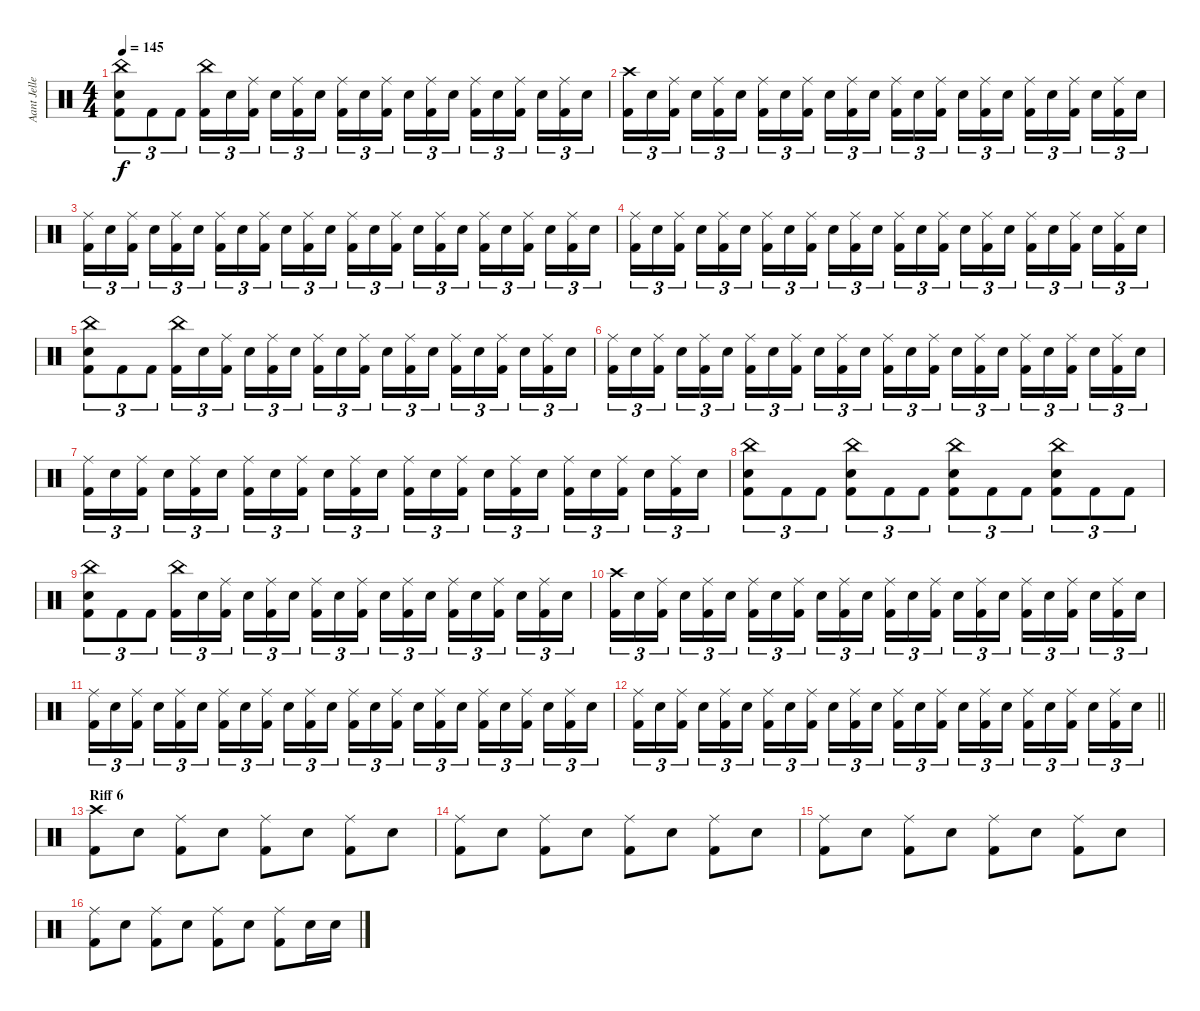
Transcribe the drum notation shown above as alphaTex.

\track ("Aant Jelle" "Aant Jelle") {instrument percussion}
\staff {score}
\articulation defaults
\ts (4 4)
\tempo 145
\clef neutral
\ks c
("China (hit)" "Electric Snare (hit)" "Kick (hit) 2").8{tu (3 2) dy f} "Kick (hit) 2".8{tu (3 2)} "Kick (hit) 2".8{tu (3 2)} ("China (hit)" "Kick (hit) 2").16{tu (3 2)} "Electric Snare (hit)".16{tu (3 2)} ("Ride (middle)" "Kick (hit) 2").16{tu (3 2) beam splitsecondary} "Electric Snare (hit)".16{tu (3 2)} ("Ride (middle)" "Kick (hit) 2").16{tu (3 2)} "Electric Snare (hit)".16{tu (3 2)} ("Ride (middle)" "Kick (hit) 2").16{tu (3 2)} "Electric Snare (hit)".16{tu (3 2)} ("Ride (middle)" "Kick (hit) 2").16{tu (3 2) beam splitsecondary} "Electric Snare (hit)".16{tu (3 2)} ("Ride (middle)" "Kick (hit) 2").16{tu (3 2)} "Electric Snare (hit)".16{tu (3 2)} ("Ride (middle)" "Kick (hit) 2").16{tu (3 2)} "Electric Snare (hit)".16{tu (3 2)} ("Ride (middle)" "Kick (hit) 2").16{tu (3 2) beam splitsecondary} "Electric Snare (hit)".16{tu (3 2)} ("Ride (middle)" "Kick (hit) 2").16{tu (3 2)} "Electric Snare (hit)".16{tu (3 2)} |
("Crash high (hit)" "Kick (hit) 2").16{tu (3 2)} "Electric Snare (hit)".16{tu (3 2)} ("Ride (middle)" "Kick (hit) 2").16{tu (3 2) beam splitsecondary} "Electric Snare (hit)".16{tu (3 2)} ("Ride (middle)" "Kick (hit) 2").16{tu (3 2)} "Electric Snare (hit)".16{tu (3 2)} ("Ride (middle)" "Kick (hit) 2").16{tu (3 2)} "Electric Snare (hit)".16{tu (3 2)} ("Ride (middle)" "Kick (hit) 2").16{tu (3 2) beam splitsecondary} "Electric Snare (hit)".16{tu (3 2)} ("Ride (middle)" "Kick (hit) 2").16{tu (3 2)} "Electric Snare (hit)".16{tu (3 2)} ("Ride (middle)" "Kick (hit) 2").16{tu (3 2)} "Electric Snare (hit)".16{tu (3 2)} ("Ride (middle)" "Kick (hit) 2").16{tu (3 2) beam splitsecondary} "Electric Snare (hit)".16{tu (3 2)} ("Ride (middle)" "Kick (hit) 2").16{tu (3 2)} "Electric Snare (hit)".16{tu (3 2)} ("Ride (middle)" "Kick (hit) 2").16{tu (3 2)} "Electric Snare (hit)".16{tu (3 2)} ("Ride (middle)" "Kick (hit) 2").16{tu (3 2) beam splitsecondary} "Electric Snare (hit)".16{tu (3 2)} ("Ride (middle)" "Kick (hit) 2").16{tu (3 2)} "Electric Snare (hit)".16{tu (3 2)} |
("Ride (middle)" "Kick (hit) 2").16{tu (3 2)} "Electric Snare (hit)".16{tu (3 2)} ("Ride (middle)" "Kick (hit) 2").16{tu (3 2) beam splitsecondary} "Electric Snare (hit)".16{tu (3 2)} ("Ride (middle)" "Kick (hit) 2").16{tu (3 2)} "Electric Snare (hit)".16{tu (3 2)} ("Ride (middle)" "Kick (hit) 2").16{tu (3 2)} "Electric Snare (hit)".16{tu (3 2)} ("Ride (middle)" "Kick (hit) 2").16{tu (3 2) beam splitsecondary} "Electric Snare (hit)".16{tu (3 2)} ("Ride (middle)" "Kick (hit) 2").16{tu (3 2)} "Electric Snare (hit)".16{tu (3 2)} ("Ride (middle)" "Kick (hit) 2").16{tu (3 2)} "Electric Snare (hit)".16{tu (3 2)} ("Ride (middle)" "Kick (hit) 2").16{tu (3 2) beam splitsecondary} "Electric Snare (hit)".16{tu (3 2)} ("Ride (middle)" "Kick (hit) 2").16{tu (3 2)} "Electric Snare (hit)".16{tu (3 2)} ("Ride (middle)" "Kick (hit) 2").16{tu (3 2)} "Electric Snare (hit)".16{tu (3 2)} ("Ride (middle)" "Kick (hit) 2").16{tu (3 2) beam splitsecondary} "Electric Snare (hit)".16{tu (3 2)} ("Ride (middle)" "Kick (hit) 2").16{tu (3 2)} "Electric Snare (hit)".16{tu (3 2)} |
("Ride (middle)" "Kick (hit) 2").16{tu (3 2)} "Electric Snare (hit)".16{tu (3 2)} ("Ride (middle)" "Kick (hit) 2").16{tu (3 2) beam splitsecondary} "Electric Snare (hit)".16{tu (3 2)} ("Ride (middle)" "Kick (hit) 2").16{tu (3 2)} "Electric Snare (hit)".16{tu (3 2)} ("Ride (middle)" "Kick (hit) 2").16{tu (3 2)} "Electric Snare (hit)".16{tu (3 2)} ("Ride (middle)" "Kick (hit) 2").16{tu (3 2) beam splitsecondary} "Electric Snare (hit)".16{tu (3 2)} ("Ride (middle)" "Kick (hit) 2").16{tu (3 2)} "Electric Snare (hit)".16{tu (3 2)} ("Ride (middle)" "Kick (hit) 2").16{tu (3 2)} "Electric Snare (hit)".16{tu (3 2)} ("Ride (middle)" "Kick (hit) 2").16{tu (3 2) beam splitsecondary} "Electric Snare (hit)".16{tu (3 2)} ("Ride (middle)" "Kick (hit) 2").16{tu (3 2)} "Electric Snare (hit)".16{tu (3 2)} ("Ride (middle)" "Kick (hit) 2").16{tu (3 2)} "Electric Snare (hit)".16{tu (3 2)} ("Ride (middle)" "Kick (hit) 2").16{tu (3 2) beam splitsecondary} "Electric Snare (hit)".16{tu (3 2)} ("Ride (middle)" "Kick (hit) 2").16{tu (3 2)} "Electric Snare (hit)".16{tu (3 2)} |
("China (hit)" "Electric Snare (hit)" "Kick (hit) 2").8{tu (3 2)} "Kick (hit) 2".8{tu (3 2)} "Kick (hit) 2".8{tu (3 2)} ("China (hit)" "Kick (hit) 2").16{tu (3 2)} "Electric Snare (hit)".16{tu (3 2)} ("Ride (middle)" "Kick (hit) 2").16{tu (3 2) beam splitsecondary} "Electric Snare (hit)".16{tu (3 2)} ("Ride (middle)" "Kick (hit) 2").16{tu (3 2)} "Electric Snare (hit)".16{tu (3 2)} ("Ride (middle)" "Kick (hit) 2").16{tu (3 2)} "Electric Snare (hit)".16{tu (3 2)} ("Ride (middle)" "Kick (hit) 2").16{tu (3 2) beam splitsecondary} "Electric Snare (hit)".16{tu (3 2)} ("Ride (middle)" "Kick (hit) 2").16{tu (3 2)} "Electric Snare (hit)".16{tu (3 2)} ("Ride (middle)" "Kick (hit) 2").16{tu (3 2)} "Electric Snare (hit)".16{tu (3 2)} ("Ride (middle)" "Kick (hit) 2").16{tu (3 2) beam splitsecondary} "Electric Snare (hit)".16{tu (3 2)} ("Ride (middle)" "Kick (hit) 2").16{tu (3 2)} "Electric Snare (hit)".16{tu (3 2)} |
("Ride (middle)" "Kick (hit) 2").16{tu (3 2)} "Electric Snare (hit)".16{tu (3 2)} ("Ride (middle)" "Kick (hit) 2").16{tu (3 2) beam splitsecondary} "Electric Snare (hit)".16{tu (3 2)} ("Ride (middle)" "Kick (hit) 2").16{tu (3 2)} "Electric Snare (hit)".16{tu (3 2)} ("Ride (middle)" "Kick (hit) 2").16{tu (3 2)} "Electric Snare (hit)".16{tu (3 2)} ("Ride (middle)" "Kick (hit) 2").16{tu (3 2) beam splitsecondary} "Electric Snare (hit)".16{tu (3 2)} ("Ride (middle)" "Kick (hit) 2").16{tu (3 2)} "Electric Snare (hit)".16{tu (3 2)} ("Ride (middle)" "Kick (hit) 2").16{tu (3 2)} "Electric Snare (hit)".16{tu (3 2)} ("Ride (middle)" "Kick (hit) 2").16{tu (3 2) beam splitsecondary} "Electric Snare (hit)".16{tu (3 2)} ("Ride (middle)" "Kick (hit) 2").16{tu (3 2)} "Electric Snare (hit)".16{tu (3 2)} ("Ride (middle)" "Kick (hit) 2").16{tu (3 2)} "Electric Snare (hit)".16{tu (3 2)} ("Ride (middle)" "Kick (hit) 2").16{tu (3 2) beam splitsecondary} "Electric Snare (hit)".16{tu (3 2)} ("Ride (middle)" "Kick (hit) 2").16{tu (3 2)} "Electric Snare (hit)".16{tu (3 2)} |
("Ride (middle)" "Kick (hit) 2").16{tu (3 2)} "Electric Snare (hit)".16{tu (3 2)} ("Ride (middle)" "Kick (hit) 2").16{tu (3 2) beam splitsecondary} "Electric Snare (hit)".16{tu (3 2)} ("Ride (middle)" "Kick (hit) 2").16{tu (3 2)} "Electric Snare (hit)".16{tu (3 2)} ("Ride (middle)" "Kick (hit) 2").16{tu (3 2)} "Electric Snare (hit)".16{tu (3 2)} ("Ride (middle)" "Kick (hit) 2").16{tu (3 2) beam splitsecondary} "Electric Snare (hit)".16{tu (3 2)} ("Ride (middle)" "Kick (hit) 2").16{tu (3 2)} "Electric Snare (hit)".16{tu (3 2)} ("Ride (middle)" "Kick (hit) 2").16{tu (3 2)} "Electric Snare (hit)".16{tu (3 2)} ("Ride (middle)" "Kick (hit) 2").16{tu (3 2) beam splitsecondary} "Electric Snare (hit)".16{tu (3 2)} ("Ride (middle)" "Kick (hit) 2").16{tu (3 2)} "Electric Snare (hit)".16{tu (3 2)} ("Ride (middle)" "Kick (hit) 2").16{tu (3 2)} "Electric Snare (hit)".16{tu (3 2)} ("Ride (middle)" "Kick (hit) 2").16{tu (3 2) beam splitsecondary} "Electric Snare (hit)".16{tu (3 2)} ("Ride (middle)" "Kick (hit) 2").16{tu (3 2)} "Electric Snare (hit)".16{tu (3 2)} |
("China (hit)" "Electric Snare (hit)" "Kick (hit) 2").8{tu (3 2)} "Kick (hit) 2".8{tu (3 2)} "Kick (hit) 2".8{tu (3 2)} ("China (hit)" "Electric Snare (hit)" "Kick (hit) 2").8{tu (3 2)} "Kick (hit) 2".8{tu (3 2)} "Kick (hit) 2".8{tu (3 2)} ("China (hit)" "Electric Snare (hit)" "Kick (hit) 2").8{tu (3 2)} "Kick (hit) 2".8{tu (3 2)} "Kick (hit) 2".8{tu (3 2)} ("China (hit)" "Electric Snare (hit)" "Kick (hit) 2").8{tu (3 2)} "Kick (hit) 2".8{tu (3 2)} "Kick (hit) 2".8{tu (3 2)} |
("China (hit)" "Electric Snare (hit)" "Kick (hit) 2").8{tu (3 2)} "Kick (hit) 2".8{tu (3 2)} "Kick (hit) 2".8{tu (3 2)} ("China (hit)" "Kick (hit) 2").16{tu (3 2)} "Electric Snare (hit)".16{tu (3 2)} ("Ride (middle)" "Kick (hit) 2").16{tu (3 2) beam splitsecondary} "Electric Snare (hit)".16{tu (3 2)} ("Ride (middle)" "Kick (hit) 2").16{tu (3 2)} "Electric Snare (hit)".16{tu (3 2)} ("Ride (middle)" "Kick (hit) 2").16{tu (3 2)} "Electric Snare (hit)".16{tu (3 2)} ("Ride (middle)" "Kick (hit) 2").16{tu (3 2) beam splitsecondary} "Electric Snare (hit)".16{tu (3 2)} ("Ride (middle)" "Kick (hit) 2").16{tu (3 2)} "Electric Snare (hit)".16{tu (3 2)} ("Ride (middle)" "Kick (hit) 2").16{tu (3 2)} "Electric Snare (hit)".16{tu (3 2)} ("Ride (middle)" "Kick (hit) 2").16{tu (3 2) beam splitsecondary} "Electric Snare (hit)".16{tu (3 2)} ("Ride (middle)" "Kick (hit) 2").16{tu (3 2)} "Electric Snare (hit)".16{tu (3 2)} |
("Crash high (hit)" "Kick (hit) 2").16{tu (3 2)} "Electric Snare (hit)".16{tu (3 2)} ("Ride (middle)" "Kick (hit) 2").16{tu (3 2) beam splitsecondary} "Electric Snare (hit)".16{tu (3 2)} ("Ride (middle)" "Kick (hit) 2").16{tu (3 2)} "Electric Snare (hit)".16{tu (3 2)} ("Ride (middle)" "Kick (hit) 2").16{tu (3 2)} "Electric Snare (hit)".16{tu (3 2)} ("Ride (middle)" "Kick (hit) 2").16{tu (3 2) beam splitsecondary} "Electric Snare (hit)".16{tu (3 2)} ("Ride (middle)" "Kick (hit) 2").16{tu (3 2)} "Electric Snare (hit)".16{tu (3 2)} ("Ride (middle)" "Kick (hit) 2").16{tu (3 2)} "Electric Snare (hit)".16{tu (3 2)} ("Ride (middle)" "Kick (hit) 2").16{tu (3 2) beam splitsecondary} "Electric Snare (hit)".16{tu (3 2)} ("Ride (middle)" "Kick (hit) 2").16{tu (3 2)} "Electric Snare (hit)".16{tu (3 2)} ("Ride (middle)" "Kick (hit) 2").16{tu (3 2)} "Electric Snare (hit)".16{tu (3 2)} ("Ride (middle)" "Kick (hit) 2").16{tu (3 2) beam splitsecondary} "Electric Snare (hit)".16{tu (3 2)} ("Ride (middle)" "Kick (hit) 2").16{tu (3 2)} "Electric Snare (hit)".16{tu (3 2)} |
("Ride (middle)" "Kick (hit) 2").16{tu (3 2)} "Electric Snare (hit)".16{tu (3 2)} ("Ride (middle)" "Kick (hit) 2").16{tu (3 2) beam splitsecondary} "Electric Snare (hit)".16{tu (3 2)} ("Ride (middle)" "Kick (hit) 2").16{tu (3 2)} "Electric Snare (hit)".16{tu (3 2)} ("Ride (middle)" "Kick (hit) 2").16{tu (3 2)} "Electric Snare (hit)".16{tu (3 2)} ("Ride (middle)" "Kick (hit) 2").16{tu (3 2) beam splitsecondary} "Electric Snare (hit)".16{tu (3 2)} ("Ride (middle)" "Kick (hit) 2").16{tu (3 2)} "Electric Snare (hit)".16{tu (3 2)} ("Ride (middle)" "Kick (hit) 2").16{tu (3 2)} "Electric Snare (hit)".16{tu (3 2)} ("Ride (middle)" "Kick (hit) 2").16{tu (3 2) beam splitsecondary} "Electric Snare (hit)".16{tu (3 2)} ("Ride (middle)" "Kick (hit) 2").16{tu (3 2)} "Electric Snare (hit)".16{tu (3 2)} ("Ride (middle)" "Kick (hit) 2").16{tu (3 2)} "Electric Snare (hit)".16{tu (3 2)} ("Ride (middle)" "Kick (hit) 2").16{tu (3 2) beam splitsecondary} "Electric Snare (hit)".16{tu (3 2)} ("Ride (middle)" "Kick (hit) 2").16{tu (3 2)} "Electric Snare (hit)".16{tu (3 2)} |
\barLineRight lightlight
("Ride (middle)" "Kick (hit) 2").16{tu (3 2)} "Electric Snare (hit)".16{tu (3 2)} ("Ride (middle)" "Kick (hit) 2").16{tu (3 2) beam splitsecondary} "Electric Snare (hit)".16{tu (3 2)} ("Ride (middle)" "Kick (hit) 2").16{tu (3 2)} "Electric Snare (hit)".16{tu (3 2)} ("Ride (middle)" "Kick (hit) 2").16{tu (3 2)} "Electric Snare (hit)".16{tu (3 2)} ("Ride (middle)" "Kick (hit) 2").16{tu (3 2) beam splitsecondary} "Electric Snare (hit)".16{tu (3 2)} ("Ride (middle)" "Kick (hit) 2").16{tu (3 2)} "Electric Snare (hit)".16{tu (3 2)} ("Ride (middle)" "Kick (hit) 2").16{tu (3 2)} "Electric Snare (hit)".16{tu (3 2)} ("Ride (middle)" "Kick (hit) 2").16{tu (3 2) beam splitsecondary} "Electric Snare (hit)".16{tu (3 2)} ("Ride (middle)" "Kick (hit) 2").16{tu (3 2)} "Electric Snare (hit)".16{tu (3 2)} ("Ride (middle)" "Kick (hit) 2").16{tu (3 2)} "Electric Snare (hit)".16{tu (3 2)} ("Ride (middle)" "Kick (hit) 2").16{tu (3 2) beam splitsecondary} "Electric Snare (hit)".16{tu (3 2)} ("Ride (middle)" "Kick (hit) 2").16{tu (3 2)} "Electric Snare (hit)".16{tu (3 2)} |
\section ("" "Riff 6")
("Crash high (hit)" "Kick (hit) 2").8 "Snare (hit) 2".8 ("Ride (middle)" "Kick (hit) 2").8 "Snare (hit) 2".8 ("Ride (middle)" "Kick (hit) 2").8 "Snare (hit) 2".8 ("Ride (middle)" "Kick (hit) 2").8 "Snare (hit) 2".8 |
("Ride (middle)" "Kick (hit) 2").8 "Snare (hit) 2".8 ("Ride (middle)" "Kick (hit) 2").8 "Snare (hit) 2".8 ("Ride (middle)" "Kick (hit) 2").8 "Snare (hit) 2".8 ("Ride (middle)" "Kick (hit) 2").8 "Snare (hit) 2".8 |
("Ride (middle)" "Kick (hit) 2").8 "Snare (hit) 2".8 ("Ride (middle)" "Kick (hit) 2").8 "Snare (hit) 2".8 ("Ride (middle)" "Kick (hit) 2").8 "Snare (hit) 2".8 ("Ride (middle)" "Kick (hit) 2").8 "Snare (hit) 2".8 |
("Ride (middle)" "Kick (hit) 2").8 "Snare (hit) 2".8 ("Ride (middle)" "Kick (hit) 2").8 "Snare (hit) 2".8 ("Ride (middle)" "Kick (hit) 2").8 "Snare (hit) 2".8 ("Ride (middle)" "Kick (hit) 2").8 "Snare (hit) 2".16 "Snare (hit) 2".16
